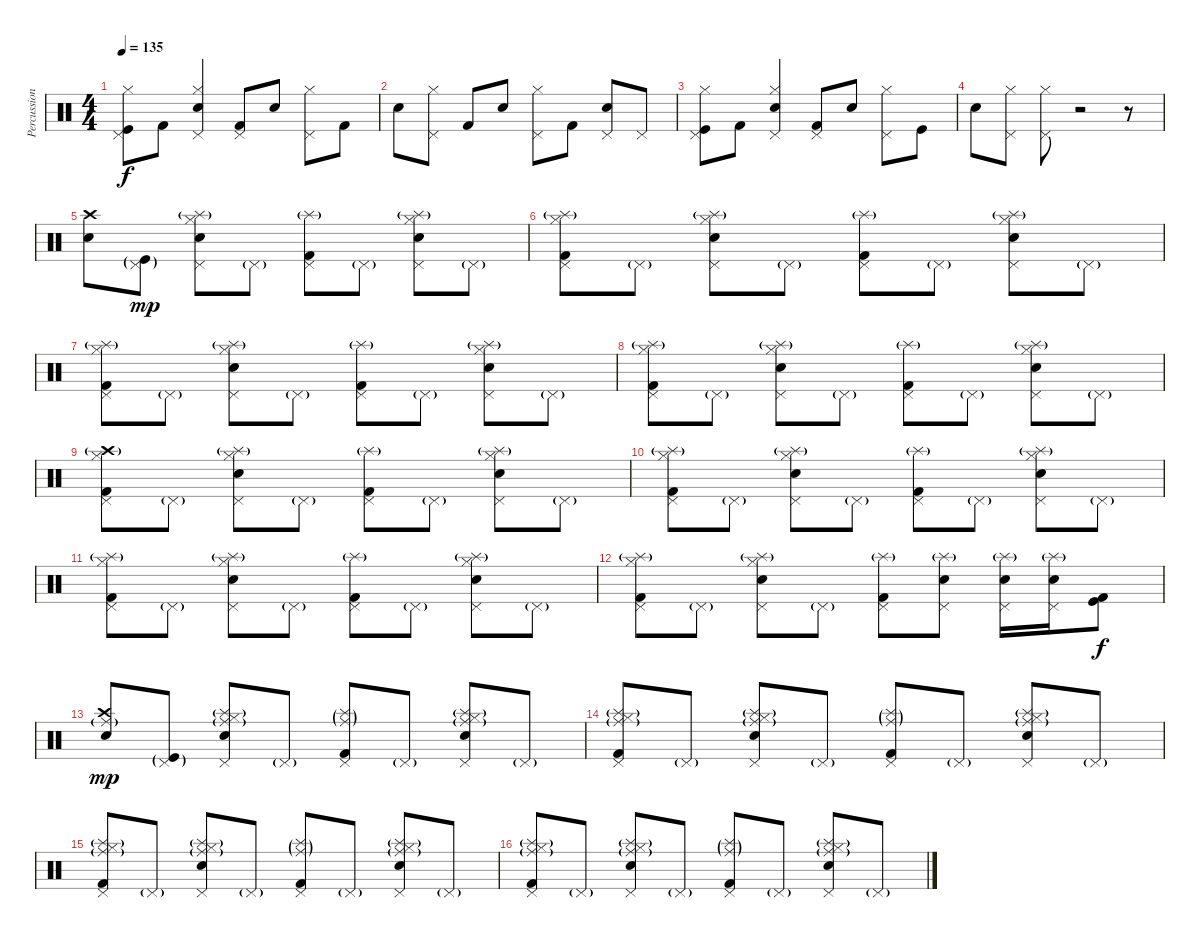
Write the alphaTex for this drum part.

\track ("Percussion" "Percussion") {instrument percussion}
\staff {score}
\articulation defaults
\ts (4 4)
\tempo 135
\clef neutral
\ks c
("Kick (hit)" "Pedal Hi-Hat (hit)" "Hi-Hat (closed)").8{dy f} "Kick (hit) 2".8 ("Electric Snare (hit)" "Pedal Hi-Hat (hit)" "Hi-Hat (closed)").4 ("Kick (hit) 2" "Pedal Hi-Hat (hit)").8 "Electric Snare (hit)".8 ("Pedal Hi-Hat (hit)" "Hi-Hat (closed)").8 "Kick (hit) 2".8 |
"Electric Snare (hit)".8 ("Pedal Hi-Hat (hit)" "Hi-Hat (closed)").8 "Kick (hit) 2".8 "Electric Snare (hit)".8 ("Pedal Hi-Hat (hit)" "Hi-Hat (closed)").8 "Kick (hit) 2".8 ("Electric Snare (hit)" "Pedal Hi-Hat (hit)").8 "Pedal Hi-Hat (hit)".8 |
("Kick (hit)" "Pedal Hi-Hat (hit)" "Hi-Hat (closed)").8 "Kick (hit) 2".8 ("Electric Snare (hit)" "Pedal Hi-Hat (hit)" "Hi-Hat (closed)").4 ("Kick (hit) 2" "Pedal Hi-Hat (hit)").8 "Electric Snare (hit)".8 ("Pedal Hi-Hat (hit)" "Hi-Hat (closed)").8 "Kick (hit)".8 |
"Electric Snare (hit)".8 ("Pedal Hi-Hat (hit)" "Hi-Hat (closed)").8 ("Pedal Hi-Hat (hit)" "Hi-Hat (closed)").8 r.2 r.8 |
("Crash high (hit)" "Electric Snare (hit)").8 ("Pedal Hi-Hat (hit)"{g} "Kick (hit)"{g}).8{dy mp} ("Pedal Hi-Hat (hit)" "Hi-Hat (closed)" "Electric Snare (hit)" "Splash (hit)"{g}).8 "Pedal Hi-Hat (hit)"{g}.8 ("Pedal Hi-Hat (hit)" "Kick (hit) 2" "Splash (hit)"{g}).8 "Pedal Hi-Hat (hit)"{g}.8 ("Pedal Hi-Hat (hit)" "Hi-Hat (closed)" "Electric Snare (hit)" "Splash (hit)"{g}).8 "Pedal Hi-Hat (hit)"{g}.8 |
("Pedal Hi-Hat (hit)" "Hi-Hat (closed)" "Kick (hit) 2" "Splash (hit)"{g}).8 "Pedal Hi-Hat (hit)"{g}.8 ("Pedal Hi-Hat (hit)" "Hi-Hat (closed)" "Electric Snare (hit)" "Splash (hit)"{g}).8 "Pedal Hi-Hat (hit)"{g}.8 ("Pedal Hi-Hat (hit)" "Kick (hit) 2" "Splash (hit)"{g}).8 "Pedal Hi-Hat (hit)"{g}.8 ("Pedal Hi-Hat (hit)" "Hi-Hat (closed)" "Electric Snare (hit)" "Splash (hit)"{g}).8 "Pedal Hi-Hat (hit)"{g}.8 |
("Pedal Hi-Hat (hit)" "Hi-Hat (closed)" "Kick (hit) 2" "Splash (hit)"{g}).8 "Pedal Hi-Hat (hit)"{g}.8 ("Pedal Hi-Hat (hit)" "Hi-Hat (closed)" "Electric Snare (hit)" "Splash (hit)"{g}).8 "Pedal Hi-Hat (hit)"{g}.8 ("Pedal Hi-Hat (hit)" "Kick (hit) 2" "Splash (hit)"{g}).8 "Pedal Hi-Hat (hit)"{g}.8 ("Pedal Hi-Hat (hit)" "Hi-Hat (closed)" "Electric Snare (hit)" "Splash (hit)"{g}).8 "Pedal Hi-Hat (hit)"{g}.8 |
("Pedal Hi-Hat (hit)" "Hi-Hat (closed)" "Kick (hit) 2" "Splash (hit)"{g}).8 "Pedal Hi-Hat (hit)"{g}.8 ("Pedal Hi-Hat (hit)" "Hi-Hat (closed)" "Electric Snare (hit)" "Splash (hit)"{g}).8 "Pedal Hi-Hat (hit)"{g}.8 ("Pedal Hi-Hat (hit)" "Kick (hit) 2" "Splash (hit)"{g}).8 "Pedal Hi-Hat (hit)"{g}.8 ("Pedal Hi-Hat (hit)" "Hi-Hat (closed)" "Electric Snare (hit)" "Splash (hit)"{g}).8 "Pedal Hi-Hat (hit)"{g}.8 |
("Pedal Hi-Hat (hit)" "Hi-Hat (closed)" "Kick (hit) 2" "Crash high (hit)"{g}).8 "Pedal Hi-Hat (hit)"{g}.8 ("Pedal Hi-Hat (hit)" "Hi-Hat (closed)" "Electric Snare (hit)" "Splash (hit)"{g}).8 "Pedal Hi-Hat (hit)"{g}.8 ("Pedal Hi-Hat (hit)" "Kick (hit) 2" "Splash (hit)"{g}).8 "Pedal Hi-Hat (hit)"{g}.8 ("Pedal Hi-Hat (hit)" "Hi-Hat (closed)" "Electric Snare (hit)" "Splash (hit)"{g}).8 "Pedal Hi-Hat (hit)"{g}.8 |
("Pedal Hi-Hat (hit)" "Hi-Hat (closed)" "Kick (hit) 2" "Splash (hit)"{g}).8 "Pedal Hi-Hat (hit)"{g}.8 ("Pedal Hi-Hat (hit)" "Hi-Hat (closed)" "Electric Snare (hit)" "Splash (hit)"{g}).8 "Pedal Hi-Hat (hit)"{g}.8 ("Pedal Hi-Hat (hit)" "Kick (hit) 2" "Splash (hit)"{g}).8 "Pedal Hi-Hat (hit)"{g}.8 ("Pedal Hi-Hat (hit)" "Hi-Hat (closed)" "Electric Snare (hit)" "Splash (hit)"{g}).8 "Pedal Hi-Hat (hit)"{g}.8 |
("Pedal Hi-Hat (hit)" "Hi-Hat (closed)" "Kick (hit) 2" "Splash (hit)"{g}).8 "Pedal Hi-Hat (hit)"{g}.8 ("Pedal Hi-Hat (hit)" "Hi-Hat (closed)" "Electric Snare (hit)" "Splash (hit)"{g}).8 "Pedal Hi-Hat (hit)"{g}.8 ("Pedal Hi-Hat (hit)" "Kick (hit) 2" "Splash (hit)"{g}).8 "Pedal Hi-Hat (hit)"{g}.8 ("Pedal Hi-Hat (hit)" "Hi-Hat (closed)" "Electric Snare (hit)" "Splash (hit)"{g}).8 "Pedal Hi-Hat (hit)"{g}.8 |
("Pedal Hi-Hat (hit)" "Hi-Hat (closed)" "Kick (hit) 2" "Splash (hit)"{g}).8 "Pedal Hi-Hat (hit)"{g}.8 ("Pedal Hi-Hat (hit)" "Hi-Hat (closed)" "Electric Snare (hit)" "Splash (hit)"{g}).8 "Pedal Hi-Hat (hit)"{g}.8 ("Pedal Hi-Hat (hit)" "Kick (hit) 2" "Splash (hit)"{g}).8 ("Pedal Hi-Hat (hit)" "Electric Snare (hit)" "Splash (hit)"{g}).8 ("Pedal Hi-Hat (hit)" "Electric Snare (hit)" "Splash (hit)"{g}).16 ("Pedal Hi-Hat (hit)" "Electric Snare (hit)" "Splash (hit)"{g}).16 ("Kick (hit)" "Kick (hit) 2").8{dy f} |
("Crash high (hit)" "Electric Snare (hit)" "Ride (middle)"{g}).8{dy mp} ("Pedal Hi-Hat (hit)"{g} "Kick (hit)"{g}).8 ("Pedal Hi-Hat (hit)" "Hi-Hat (closed)" "Electric Snare (hit)" "Splash (hit)"{g} "Ride (middle)"{g}).8 "Pedal Hi-Hat (hit)"{g}.8 ("Pedal Hi-Hat (hit)" "Kick (hit) 2" "Splash (hit)"{g} "Ride (middle)"{g}).8 "Pedal Hi-Hat (hit)"{g}.8 ("Pedal Hi-Hat (hit)" "Hi-Hat (closed)" "Electric Snare (hit)" "Splash (hit)"{g} "Ride (middle)"{g}).8 "Pedal Hi-Hat (hit)"{g}.8 |
("Pedal Hi-Hat (hit)" "Hi-Hat (closed)" "Kick (hit) 2" "Splash (hit)"{g} "Ride (middle)"{g}).8 "Pedal Hi-Hat (hit)"{g}.8 ("Pedal Hi-Hat (hit)" "Hi-Hat (closed)" "Electric Snare (hit)" "Splash (hit)"{g} "Ride (middle)"{g}).8 "Pedal Hi-Hat (hit)"{g}.8 ("Pedal Hi-Hat (hit)" "Kick (hit) 2" "Splash (hit)"{g} "Ride (middle)"{g}).8 "Pedal Hi-Hat (hit)"{g}.8 ("Pedal Hi-Hat (hit)" "Hi-Hat (closed)" "Electric Snare (hit)" "Splash (hit)"{g} "Ride (middle)"{g}).8 "Pedal Hi-Hat (hit)"{g}.8 |
("Pedal Hi-Hat (hit)" "Hi-Hat (closed)" "Kick (hit) 2" "Splash (hit)"{g} "Ride (middle)"{g}).8 "Pedal Hi-Hat (hit)"{g}.8 ("Pedal Hi-Hat (hit)" "Hi-Hat (closed)" "Electric Snare (hit)" "Splash (hit)"{g} "Ride (middle)"{g}).8 "Pedal Hi-Hat (hit)"{g}.8 ("Pedal Hi-Hat (hit)" "Kick (hit) 2" "Splash (hit)"{g} "Ride (middle)"{g}).8 "Pedal Hi-Hat (hit)"{g}.8 ("Pedal Hi-Hat (hit)" "Hi-Hat (closed)" "Electric Snare (hit)" "Splash (hit)"{g} "Ride (middle)"{g}).8 "Pedal Hi-Hat (hit)"{g}.8 |
("Pedal Hi-Hat (hit)" "Hi-Hat (closed)" "Kick (hit) 2" "Splash (hit)"{g} "Ride (middle)"{g}).8 "Pedal Hi-Hat (hit)"{g}.8 ("Pedal Hi-Hat (hit)" "Hi-Hat (closed)" "Electric Snare (hit)" "Splash (hit)"{g} "Ride (middle)"{g}).8 "Pedal Hi-Hat (hit)"{g}.8 ("Pedal Hi-Hat (hit)" "Kick (hit) 2" "Splash (hit)"{g} "Ride (middle)"{g}).8 "Pedal Hi-Hat (hit)"{g}.8 ("Pedal Hi-Hat (hit)" "Hi-Hat (closed)" "Electric Snare (hit)" "Splash (hit)"{g} "Ride (middle)"{g}).8 "Pedal Hi-Hat (hit)"{g}.8
